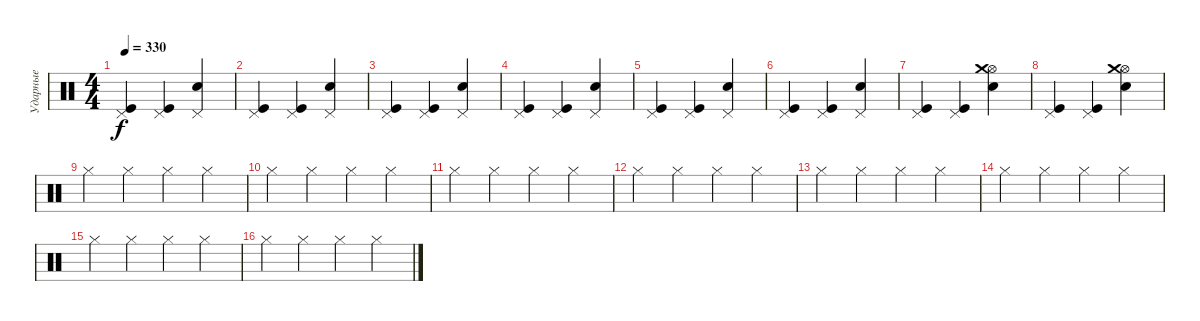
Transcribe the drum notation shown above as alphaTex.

\track ("Ударные" "Ударные") {instrument percussion}
\staff {score}
\articulation defaults
\ts (4 4)
\tempo 330
\clef neutral
\ks c
("Kick (hit)" "Pedal Hi-Hat (hit)").4{dy f} ("Kick (hit)" "Pedal Hi-Hat (hit)").4 ("Snare (hit) 2" "Pedal Hi-Hat (hit)").4 |
("Kick (hit)" "Pedal Hi-Hat (hit)").4 ("Kick (hit)" "Pedal Hi-Hat (hit)").4 ("Snare (hit) 2" "Pedal Hi-Hat (hit)").4 |
("Kick (hit)" "Pedal Hi-Hat (hit)").4 ("Kick (hit)" "Pedal Hi-Hat (hit)").4 ("Snare (hit) 2" "Pedal Hi-Hat (hit)").4 |
("Kick (hit)" "Pedal Hi-Hat (hit)").4 ("Kick (hit)" "Pedal Hi-Hat (hit)").4 ("Snare (hit) 2" "Pedal Hi-Hat (hit)").4 |
("Kick (hit)" "Pedal Hi-Hat (hit)").4 ("Kick (hit)" "Pedal Hi-Hat (hit)").4 ("Snare (hit) 2" "Pedal Hi-Hat (hit)").4 |
("Kick (hit)" "Pedal Hi-Hat (hit)").4 ("Kick (hit)" "Pedal Hi-Hat (hit)").4 ("Snare (hit) 2" "Pedal Hi-Hat (hit)").4 |
("Kick (hit)" "Pedal Hi-Hat (hit)").4 ("Kick (hit)" "Pedal Hi-Hat (hit)").4 ("Snare (hit) 2" "Hi-Hat (open)" "Crash medium (hit)").4 |
("Kick (hit)" "Pedal Hi-Hat (hit)").4 ("Kick (hit)" "Pedal Hi-Hat (hit)").4 ("Snare (hit) 2" "Hi-Hat (open)" "Crash medium (hit)").4 |
"Hi-Hat (closed)".4 "Hi-Hat (closed)".4 "Hi-Hat (closed)".4 "Hi-Hat (closed)".4 |
"Hi-Hat (closed)".4 "Hi-Hat (closed)".4 "Hi-Hat (closed)".4 "Hi-Hat (closed)".4 |
"Hi-Hat (closed)".4 "Hi-Hat (closed)".4 "Hi-Hat (closed)".4 "Hi-Hat (closed)".4 |
"Hi-Hat (closed)".4 "Hi-Hat (closed)".4 "Hi-Hat (closed)".4 "Hi-Hat (closed)".4 |
"Hi-Hat (closed)".4 "Hi-Hat (closed)".4 "Hi-Hat (closed)".4 "Hi-Hat (closed)".4 |
"Hi-Hat (closed)".4 "Hi-Hat (closed)".4 "Hi-Hat (closed)".4 "Hi-Hat (closed)".4 |
"Hi-Hat (closed)".4 "Hi-Hat (closed)".4 "Hi-Hat (closed)".4 "Hi-Hat (closed)".4 |
"Hi-Hat (closed)".4 "Hi-Hat (closed)".4 "Hi-Hat (closed)".4 "Hi-Hat (closed)".4
